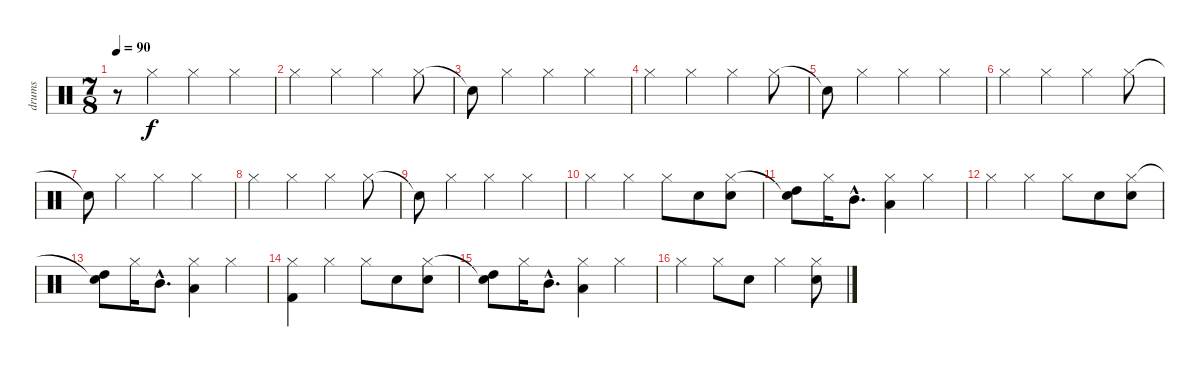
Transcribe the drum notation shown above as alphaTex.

\track ("drums" "drums") {instrument percussion}
\staff {score}
\articulation defaults
\ts (7 8)
\tempo 90
\clef neutral
\ks c
r.8{dy f} "Hi-Hat (closed)".4 "Hi-Hat (closed)".4 "Hi-Hat (closed)".4 |
"Hi-Hat (closed)".4 "Hi-Hat (closed)".4 "Hi-Hat (closed)".4 "Hi-Hat (closed)".8 |
"Snare (hit)"{t}.8 "Hi-Hat (closed)".4 "Hi-Hat (closed)".4 "Hi-Hat (closed)".4 |
"Hi-Hat (closed)".4 "Hi-Hat (closed)".4 "Hi-Hat (closed)".4 "Hi-Hat (closed)".8 |
"Snare (hit)"{t}.8 "Hi-Hat (closed)".4 "Hi-Hat (closed)".4 "Hi-Hat (closed)".4 |
"Hi-Hat (closed)".4 "Hi-Hat (closed)".4 "Hi-Hat (closed)".4 "Hi-Hat (closed)".8 |
"Snare (hit)"{t}.8 "Hi-Hat (closed)".4 "Hi-Hat (closed)".4 "Hi-Hat (closed)".4 |
"Hi-Hat (closed)".4 "Hi-Hat (closed)".4 "Hi-Hat (closed)".4 "Hi-Hat (closed)".8 |
"Snare (hit)"{t}.8 "Hi-Hat (closed)".4 "Hi-Hat (closed)".4 "Hi-Hat (closed)".4 |
"Hi-Hat (closed)".4 "Hi-Hat (closed)".4 "Hi-Hat (closed)".8 "Electric Snare (hit)".8 ("Hi-Hat (closed)" "Electric Snare (hit)").8 |
("Snare (hit)"{t} "High Tom (hit)").8 "Hi-Hat (closed)".16 "Mid Tom (hit)"{hac}.8{d} ("Hi-Hat (closed)" "Low Tom (hit)").4 "Hi-Hat (closed)".4 |
"Hi-Hat (closed)".4 "Hi-Hat (closed)".4 "Hi-Hat (closed)".8 "Electric Snare (hit)".8 ("Hi-Hat (closed)" "Electric Snare (hit)").8 |
("Snare (hit)"{t} "High Tom (hit)").8 "Hi-Hat (closed)".16 "Mid Tom (hit)"{hac}.8{d} ("Hi-Hat (closed)" "Low Tom (hit)").4 "Hi-Hat (closed)".4 |
("Hi-Hat (closed)" "Kick (hit) 2").4 "Hi-Hat (closed)".4 "Hi-Hat (closed)".8 "Electric Snare (hit)".8 ("Hi-Hat (closed)" "Electric Snare (hit)").8 |
("Snare (hit)"{t} "High Tom (hit)").8 "Hi-Hat (closed)".16 "Mid Tom (hit)"{hac}.8{d} ("Hi-Hat (closed)" "Low Tom (hit)").4 "Hi-Hat (closed)".4 |
"Hi-Hat (closed)".4 "Hi-Hat (closed)".8 "Electric Snare (hit)".8 "Hi-Hat (closed)".4 ("Hi-Hat (closed)" "Electric Snare (hit)").8
